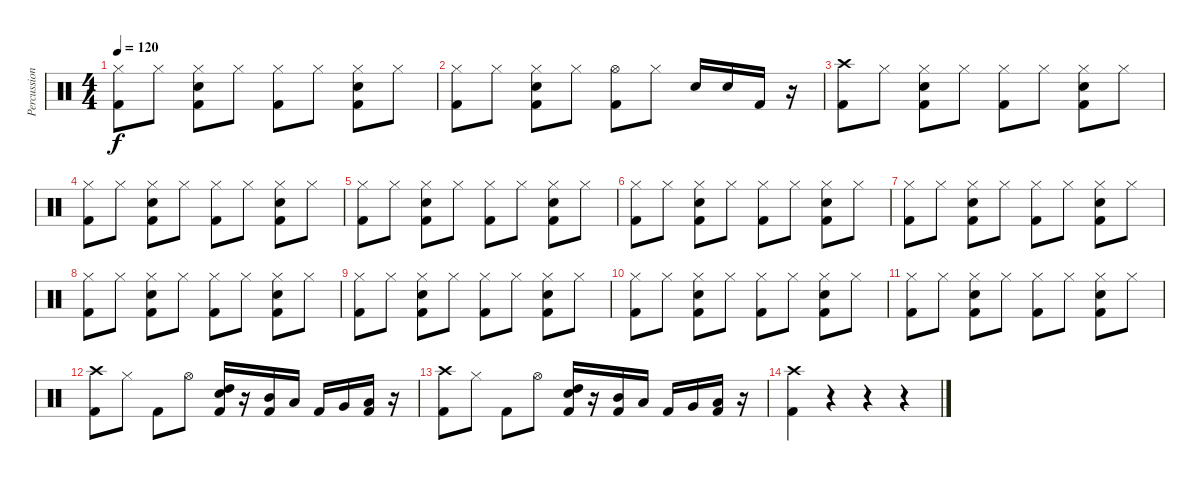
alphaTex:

\track ("Percussion" "Percussion") {instrument percussion}
\staff {score}
\articulation defaults
\ts (4 4)
\tempo 120
\clef neutral
\ks c
("Hi-Hat (closed)" "Kick (hit) 2").8{dy f} "Hi-Hat (closed)".8 ("Hi-Hat (closed)" "Snare (hit) 2" "Kick (hit) 2").8 "Hi-Hat (closed)".8 ("Hi-Hat (closed)" "Kick (hit) 2").8 "Hi-Hat (closed)".8 ("Hi-Hat (closed)" "Snare (hit) 2" "Kick (hit) 2").8 "Hi-Hat (closed)".8 |
("Hi-Hat (closed)" "Kick (hit) 2").8 "Hi-Hat (closed)".8 ("Hi-Hat (closed)" "Snare (hit) 2" "Kick (hit) 2").8 "Hi-Hat (closed)".8 ("Hi-Hat (open)" "Kick (hit) 2").8 "Hi-Hat (closed)".8 "Snare (hit) 2".16 "Snare (hit) 2".16 "Kick (hit) 2".16 r.16 |
("Crash high (hit)" "Kick (hit) 2").8 "Hi-Hat (closed)".8 ("Hi-Hat (closed)" "Snare (hit) 2" "Kick (hit) 2").8 "Hi-Hat (closed)".8 ("Hi-Hat (closed)" "Kick (hit) 2").8 "Hi-Hat (closed)".8 ("Hi-Hat (closed)" "Snare (hit) 2" "Kick (hit) 2").8 "Hi-Hat (closed)".8 |
("Hi-Hat (closed)" "Kick (hit) 2").8 "Hi-Hat (closed)".8 ("Hi-Hat (closed)" "Snare (hit) 2" "Kick (hit) 2").8 "Hi-Hat (closed)".8 ("Hi-Hat (closed)" "Kick (hit) 2").8 "Hi-Hat (closed)".8 ("Hi-Hat (closed)" "Snare (hit) 2" "Kick (hit) 2").8 "Hi-Hat (closed)".8 |
("Hi-Hat (closed)" "Kick (hit) 2").8 "Hi-Hat (closed)".8 ("Hi-Hat (closed)" "Snare (hit) 2" "Kick (hit) 2").8 "Hi-Hat (closed)".8 ("Hi-Hat (closed)" "Kick (hit) 2").8 "Hi-Hat (closed)".8 ("Hi-Hat (closed)" "Snare (hit) 2" "Kick (hit) 2").8 "Hi-Hat (closed)".8 |
("Hi-Hat (closed)" "Kick (hit) 2").8 "Hi-Hat (closed)".8 ("Hi-Hat (closed)" "Snare (hit) 2" "Kick (hit) 2").8 "Hi-Hat (closed)".8 ("Hi-Hat (closed)" "Kick (hit) 2").8 "Hi-Hat (closed)".8 ("Hi-Hat (closed)" "Snare (hit) 2" "Kick (hit) 2").8 "Hi-Hat (closed)".8 |
("Hi-Hat (closed)" "Kick (hit) 2").8 "Hi-Hat (closed)".8 ("Hi-Hat (closed)" "Snare (hit) 2" "Kick (hit) 2").8 "Hi-Hat (closed)".8 ("Hi-Hat (closed)" "Kick (hit) 2").8 "Hi-Hat (closed)".8 ("Hi-Hat (closed)" "Snare (hit) 2" "Kick (hit) 2").8 "Hi-Hat (closed)".8 |
("Hi-Hat (closed)" "Kick (hit) 2").8 "Hi-Hat (closed)".8 ("Hi-Hat (closed)" "Snare (hit) 2" "Kick (hit) 2").8 "Hi-Hat (closed)".8 ("Hi-Hat (closed)" "Kick (hit) 2").8 "Hi-Hat (closed)".8 ("Hi-Hat (closed)" "Snare (hit) 2" "Kick (hit) 2").8 "Hi-Hat (closed)".8 |
("Hi-Hat (closed)" "Kick (hit) 2").8 "Hi-Hat (closed)".8 ("Hi-Hat (closed)" "Snare (hit) 2" "Kick (hit) 2").8 "Hi-Hat (closed)".8 ("Hi-Hat (closed)" "Kick (hit) 2").8 "Hi-Hat (closed)".8 ("Hi-Hat (closed)" "Snare (hit) 2" "Kick (hit) 2").8 "Hi-Hat (closed)".8 |
("Hi-Hat (closed)" "Kick (hit) 2").8 "Hi-Hat (closed)".8 ("Hi-Hat (closed)" "Snare (hit) 2" "Kick (hit) 2").8 "Hi-Hat (closed)".8 ("Hi-Hat (closed)" "Kick (hit) 2").8 "Hi-Hat (closed)".8 ("Hi-Hat (closed)" "Snare (hit) 2" "Kick (hit) 2").8 "Hi-Hat (closed)".8 |
("Hi-Hat (closed)" "Kick (hit) 2").8 "Hi-Hat (closed)".8 ("Hi-Hat (closed)" "Snare (hit) 2" "Kick (hit) 2").8 "Hi-Hat (closed)".8 ("Hi-Hat (closed)" "Kick (hit) 2").8 "Hi-Hat (closed)".8 ("Hi-Hat (closed)" "Snare (hit) 2" "Kick (hit) 2").8 "Hi-Hat (closed)".8 |
("Crash high (hit)" "Kick (hit) 2").8 "Hi-Hat (closed)".8 "Kick (hit) 2".8 "Hi-Hat (open)".8 ("High Tom (hit)" "Snare (hit) 2" "Kick (hit) 2").16 r.16 ("Mid Tom (hit)" "Kick (hit) 2").16 "Low Tom (hit)".16 "Kick (hit) 2".16 "Very Low Tom (hit)".16 ("Low Floor Tom (hit)" "Kick (hit) 2").16 r.16 |
("Crash high (hit)" "Kick (hit) 2").8 "Hi-Hat (closed)".8 "Kick (hit) 2".8 "Hi-Hat (open)".8 ("High Tom (hit)" "Snare (hit) 2" "Kick (hit) 2").16 r.16 ("Mid Tom (hit)" "Kick (hit) 2").16 "Low Tom (hit)".16 "Kick (hit) 2".16 "Very Low Tom (hit)".16 ("Low Floor Tom (hit)" "Kick (hit) 2").16 r.16 |
("Crash high (hit)" "Kick (hit) 2").4 r.4 r.4 r.4
